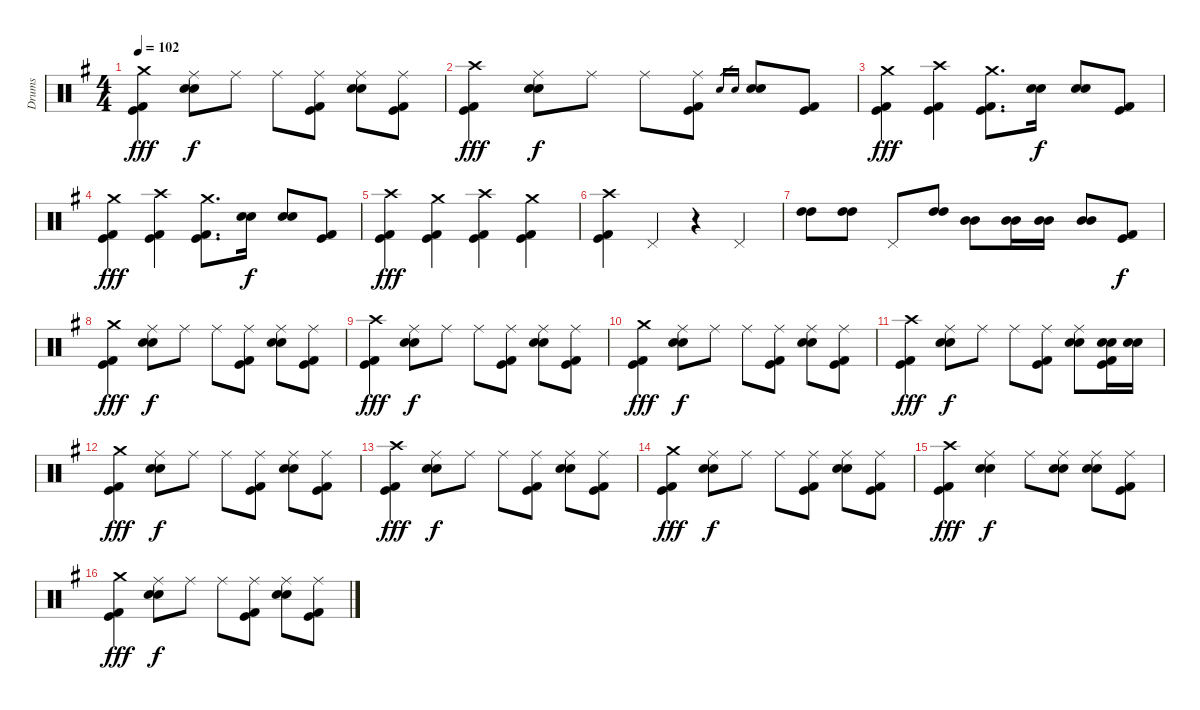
\track ("Drums" "Drums") {instrument percussion}
\staff {score}
\articulation defaults
\ts (4 4)
\tempo 102
\clef neutral
\ks g
("Crash medium (hit)" "Kick (hit)" "Kick (hit) 2").4{dy fff} ("Ride (middle)" "Electric Snare (hit)" "Snare (hit) 2").8{dy f} "Ride (middle)".8 "Ride (middle)".8 ("Ride (middle)" "Kick (hit)" "Kick (hit) 2").8 ("Ride (middle)" "Electric Snare (hit)" "Snare (hit) 2").8 ("Ride (middle)" "Kick (hit)" "Kick (hit) 2").8 |
("Crash high (hit)" "Kick (hit)" "Kick (hit) 2").4{dy fff} ("Ride (middle)" "Electric Snare (hit)" "Snare (hit) 2").8{dy f} "Ride (middle)".8 "Ride (middle)".8 ("Ride (middle)" "Kick (hit)" "Kick (hit) 2").8 "Electric Snare (hit)".16{gr} "Snare (hit) 2".16{gr} ("Electric Snare (hit)" "Snare (hit) 2").8 ("Kick (hit)" "Kick (hit) 2").8 |
("Crash medium (hit)" "Kick (hit)" "Kick (hit) 2").4{dy fff} ("Crash high (hit)" "Kick (hit)" "Kick (hit) 2").4 ("Crash medium (hit)" "Kick (hit)" "Kick (hit) 2").8{d} ("Electric Snare (hit)" "Snare (hit) 2").16{dy f} ("Electric Snare (hit)" "Snare (hit) 2").8 ("Kick (hit)" "Kick (hit) 2").8 |
("Crash medium (hit)" "Kick (hit)" "Kick (hit) 2").4{dy fff} ("Crash high (hit)" "Kick (hit)" "Kick (hit) 2").4 ("Crash medium (hit)" "Kick (hit)" "Kick (hit) 2").8{d} ("Electric Snare (hit)" "Snare (hit) 2").16{dy f} ("Electric Snare (hit)" "Snare (hit) 2").8 ("Kick (hit)" "Kick (hit) 2").8 |
("Crash high (hit)" "Kick (hit)" "Kick (hit) 2").4{dy fff} ("Crash medium (hit)" "Kick (hit)" "Kick (hit) 2").4 ("Crash high (hit)" "Kick (hit)" "Kick (hit) 2").4 ("Crash medium (hit)" "Kick (hit)" "Kick (hit) 2").4 |
("Crash high (hit)" "Kick (hit)" "Kick (hit) 2").4 "Pedal Hi-Hat (hit)".4 r.4 "Pedal Hi-Hat (hit)".4 |
("High Tom (hit)" "High Tom (hit)").8 ("High Tom (hit)" "High Tom (hit)").8 "Pedal Hi-Hat (hit)".8 ("High Tom (hit)" "High Tom (hit)").8 ("Mid Tom (hit)" "Mid Tom (hit)").8 ("Mid Tom (hit)" "Mid Tom (hit)").16 ("Mid Tom (hit)" "Mid Tom (hit)").16 ("Mid Tom (hit)" "Mid Tom (hit)").8 ("Kick (hit)" "Kick (hit) 2").8{dy f} |
("Crash medium (hit)" "Kick (hit)" "Kick (hit) 2").4{dy fff} ("Ride (middle)" "Electric Snare (hit)" "Snare (hit) 2").8{dy f} "Ride (middle)".8 "Ride (middle)".8 ("Ride (middle)" "Kick (hit)" "Kick (hit) 2").8 ("Ride (middle)" "Electric Snare (hit)" "Snare (hit) 2").8 ("Ride (middle)" "Kick (hit)" "Kick (hit) 2").8 |
("Crash high (hit)" "Kick (hit)" "Kick (hit) 2").4{dy fff} ("Ride (middle)" "Electric Snare (hit)" "Snare (hit) 2").8{dy f} "Ride (middle)".8 "Ride (middle)".8 ("Ride (middle)" "Kick (hit)" "Kick (hit) 2").8 ("Ride (middle)" "Electric Snare (hit)" "Snare (hit) 2").8 ("Ride (middle)" "Kick (hit)" "Kick (hit) 2").8 |
("Crash medium (hit)" "Kick (hit)" "Kick (hit) 2").4{dy fff} ("Ride (middle)" "Electric Snare (hit)" "Snare (hit) 2").8{dy f} "Ride (middle)".8 "Ride (middle)".8 ("Ride (middle)" "Kick (hit)" "Kick (hit) 2").8 ("Ride (middle)" "Electric Snare (hit)" "Snare (hit) 2").8 ("Ride (middle)" "Kick (hit)" "Kick (hit) 2").8 |
("Crash high (hit)" "Kick (hit)" "Kick (hit) 2").4{dy fff} ("Ride (middle)" "Electric Snare (hit)" "Snare (hit) 2").8{dy f} "Ride (middle)".8 "Ride (middle)".8 ("Ride (middle)" "Kick (hit)" "Kick (hit) 2").8 ("Ride (middle)" "Electric Snare (hit)" "Snare (hit) 2").8 ("Electric Snare (hit)" "Snare (hit) 2" "Kick (hit)" "Kick (hit) 2").16 ("Electric Snare (hit)" "Snare (hit) 2").16 |
("Crash medium (hit)" "Kick (hit)" "Kick (hit) 2").4{dy fff} ("Ride (middle)" "Electric Snare (hit)" "Snare (hit) 2").8{dy f} "Ride (middle)".8 "Ride (middle)".8 ("Ride (middle)" "Kick (hit)" "Kick (hit) 2").8 ("Ride (middle)" "Electric Snare (hit)" "Snare (hit) 2").8 ("Ride (middle)" "Kick (hit)" "Kick (hit) 2").8 |
("Crash high (hit)" "Kick (hit)" "Kick (hit) 2").4{dy fff} ("Ride (middle)" "Electric Snare (hit)" "Snare (hit) 2").8{dy f} "Ride (middle)".8 "Ride (middle)".8 ("Ride (middle)" "Kick (hit)" "Kick (hit) 2").8 ("Ride (middle)" "Electric Snare (hit)" "Snare (hit) 2").8 ("Ride (middle)" "Kick (hit)" "Kick (hit) 2").8 |
("Crash medium (hit)" "Kick (hit)" "Kick (hit) 2").4{dy fff} ("Ride (middle)" "Electric Snare (hit)" "Snare (hit) 2").8{dy f} "Ride (middle)".8 "Ride (middle)".8 ("Ride (middle)" "Kick (hit)" "Kick (hit) 2").8 ("Ride (middle)" "Electric Snare (hit)" "Snare (hit) 2").8 ("Ride (middle)" "Kick (hit)" "Kick (hit) 2").8 |
("Crash high (hit)" "Kick (hit)" "Kick (hit) 2").4{dy fff} ("Ride (middle)" "Electric Snare (hit)" "Snare (hit) 2").4{dy f} "Ride (middle)".8 ("Ride (middle)" "Electric Snare (hit)" "Snare (hit) 2").8 ("Ride (middle)" "Electric Snare (hit)" "Snare (hit) 2").8 ("Ride (middle)" "Kick (hit)" "Kick (hit) 2").8 |
("Crash medium (hit)" "Kick (hit)" "Kick (hit) 2").4{dy fff} ("Ride (middle)" "Electric Snare (hit)" "Snare (hit) 2").8{dy f} "Ride (middle)".8 "Ride (middle)".8 ("Ride (middle)" "Kick (hit)" "Kick (hit) 2").8 ("Ride (middle)" "Electric Snare (hit)" "Snare (hit) 2").8 ("Ride (middle)" "Kick (hit)" "Kick (hit) 2").8
